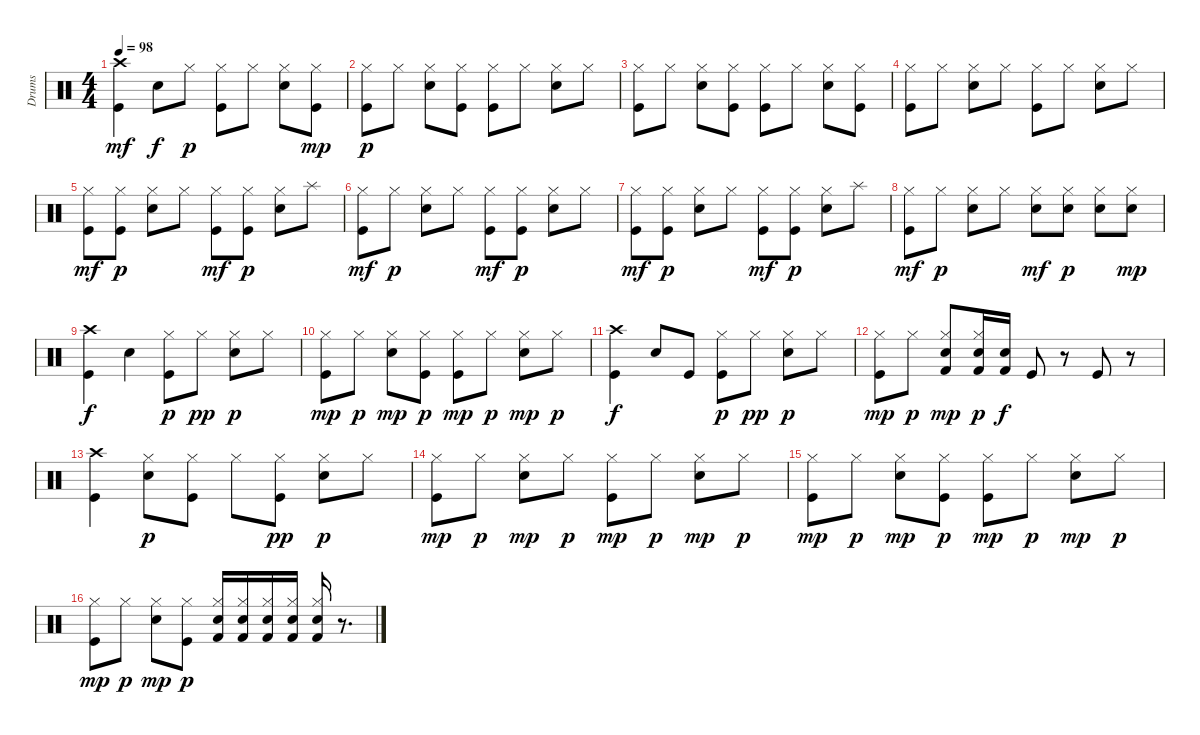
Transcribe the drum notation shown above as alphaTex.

\track ("Drums" "Drums") {instrument percussion}
\staff {score}
\articulation defaults
\ts (4 4)
\tempo 98
\clef neutral
\ks c
("Crash high (hit)" "Kick (hit)").4{dy mf} "Snare (hit) 2".8{dy f} "Hi-Hat (closed)".8{dy p} ("Hi-Hat (closed)" "Kick (hit)").8 "Hi-Hat (closed)".8 ("Hi-Hat (closed)" "Snare (hit) 2").8 ("Hi-Hat (closed)" "Kick (hit)").8{dy mp} |
("Hi-Hat (closed)" "Kick (hit)").8{dy p} "Hi-Hat (closed)".8 ("Hi-Hat (closed)" "Snare (hit) 2").8 ("Hi-Hat (closed)" "Kick (hit)").8 ("Hi-Hat (closed)" "Kick (hit)").8 "Hi-Hat (closed)".8 ("Hi-Hat (closed)" "Snare (hit) 2").8 "Hi-Hat (closed)".8 |
("Hi-Hat (closed)" "Kick (hit)").8 "Hi-Hat (closed)".8 ("Hi-Hat (closed)" "Snare (hit) 2").8 ("Hi-Hat (closed)" "Kick (hit)").8 ("Hi-Hat (closed)" "Kick (hit)").8 "Hi-Hat (closed)".8 ("Hi-Hat (closed)" "Snare (hit) 2").8 ("Kick (hit)" "Hi-Hat (closed)").8 |
("Hi-Hat (closed)" "Kick (hit)").8 "Hi-Hat (closed)".8 ("Hi-Hat (closed)" "Snare (hit) 2").8 "Hi-Hat (closed)".8 ("Hi-Hat (closed)" "Kick (hit)").8 "Hi-Hat (closed)".8 ("Hi-Hat (closed)" "Snare (hit) 2").8 "Hi-Hat (closed)".8 |
("Hi-Hat (closed)" "Kick (hit)").8{dy mf} ("Kick (hit)" "Hi-Hat (closed)").8{dy p} ("Hi-Hat (closed)" "Snare (hit) 2").8 "Hi-Hat (closed)".8 ("Hi-Hat (closed)" "Kick (hit)").8{dy mf} ("Kick (hit)" "Hi-Hat (closed)").8{dy p} ("Hi-Hat (closed)" "Snare (hit) 2").8 "Splash (hit)".8 |
("Hi-Hat (closed)" "Kick (hit)").8{dy mf} "Hi-Hat (closed)".8{dy p} ("Hi-Hat (closed)" "Snare (hit) 2").8 "Hi-Hat (closed)".8 ("Hi-Hat (closed)" "Kick (hit)").8{dy mf} ("Kick (hit)" "Hi-Hat (closed)").8{dy p} ("Hi-Hat (closed)" "Snare (hit) 2").8 "Hi-Hat (closed)".8 |
("Hi-Hat (closed)" "Kick (hit)").8{dy mf} ("Kick (hit)" "Hi-Hat (closed)").8{dy p} ("Hi-Hat (closed)" "Snare (hit) 2").8 "Hi-Hat (closed)".8 ("Hi-Hat (closed)" "Kick (hit)").8{dy mf} ("Kick (hit)" "Hi-Hat (closed)").8{dy p} ("Hi-Hat (closed)" "Snare (hit) 2").8 "Splash (hit)".8 |
("Hi-Hat (closed)" "Kick (hit)").8{dy mf} "Hi-Hat (closed)".8{dy p} ("Hi-Hat (closed)" "Snare (hit) 2").8 "Hi-Hat (closed)".8 ("Hi-Hat (closed)" "Snare (hit) 2").8{dy mf} ("Snare (hit) 2" "Hi-Hat (closed)").8{dy p} ("Hi-Hat (closed)" "Snare (hit) 2").8 ("Hi-Hat (closed)" "Snare (hit) 2").8{dy mp} |
("Crash high (hit)" "Kick (hit)").4{dy f} "Snare (hit) 2".4 ("Kick (hit)" "Hi-Hat (closed)").8{dy p} "Hi-Hat (closed)".8{dy pp} ("Hi-Hat (closed)" "Snare (hit) 2").8{dy p} "Hi-Hat (closed)".8 |
("Kick (hit)" "Hi-Hat (closed)").8{dy mp} "Hi-Hat (closed)".8{dy p} ("Hi-Hat (closed)" "Snare (hit) 2").8{dy mp} ("Kick (hit)" "Hi-Hat (closed)").8{dy p} ("Hi-Hat (closed)" "Kick (hit)").8{dy mp} "Hi-Hat (closed)".8{dy p} ("Snare (hit) 2" "Hi-Hat (closed)").8{dy mp} "Hi-Hat (closed)".8{dy p} |
("Kick (hit)" "Crash high (hit)").4{dy f} "Snare (hit) 2".8 "Kick (hit)".8 ("Kick (hit)" "Hi-Hat (closed)").8{dy p} "Hi-Hat (closed)".8{dy pp} ("Hi-Hat (closed)" "Snare (hit) 2").8{dy p} "Hi-Hat (closed)".8 |
("Kick (hit)" "Hi-Hat (closed)").8{dy mp} "Hi-Hat (closed)".8{dy p} ("Snare (hit) 2" "Hi-Hat (closed)" "Kick (hit) 2").8{dy mp} ("Snare (hit) 2" "Hi-Hat (closed)" "Kick (hit) 2").16{dy p} ("Snare (hit) 2" "Kick (hit) 2").16{dy f} "Kick (hit)".8 r.8 "Kick (hit)".8 r.8 |
("Kick (hit)" "Crash high (hit)").4 ("Snare (hit) 2" "Hi-Hat (closed)").8{dy p} ("Kick (hit)" "Hi-Hat (closed)").8 "Hi-Hat (closed)".8 ("Kick (hit)" "Hi-Hat (closed)").8{dy pp} ("Snare (hit) 2" "Hi-Hat (closed)").8{dy p} "Hi-Hat (closed)".8 |
("Kick (hit)" "Hi-Hat (closed)").8{dy mp} "Hi-Hat (closed)".8{dy p} ("Snare (hit) 2" "Hi-Hat (closed)").8{dy mp} "Hi-Hat (closed)".8{dy p} ("Kick (hit)" "Hi-Hat (closed)").8{dy mp} "Hi-Hat (closed)".8{dy p} ("Snare (hit) 2" "Hi-Hat (closed)").8{dy mp} "Hi-Hat (closed)".8{dy p} |
("Kick (hit)" "Hi-Hat (closed)").8{dy mp} "Hi-Hat (closed)".8{dy p} ("Snare (hit) 2" "Hi-Hat (closed)").8{dy mp} ("Kick (hit)" "Hi-Hat (closed)").8{dy p} ("Kick (hit)" "Hi-Hat (closed)").8{dy mp} "Hi-Hat (closed)".8{dy p} ("Snare (hit) 2" "Hi-Hat (closed)").8{dy mp} "Hi-Hat (closed)".8{dy p} |
("Kick (hit)" "Hi-Hat (closed)").8{dy mp} "Hi-Hat (closed)".8{dy p} ("Snare (hit) 2" "Hi-Hat (closed)").8{dy mp} ("Kick (hit)" "Hi-Hat (closed)").8{dy p} ("Hi-Hat (closed)" "Snare (hit) 2" "Kick (hit) 2").16 ("Hi-Hat (closed)" "Snare (hit) 2" "Kick (hit) 2").16 ("Hi-Hat (closed)" "Snare (hit) 2" "Kick (hit) 2").16 ("Hi-Hat (closed)" "Snare (hit) 2" "Kick (hit) 2").16 ("Hi-Hat (closed)" "Snare (hit) 2" "Kick (hit) 2").16 r.8{d}
